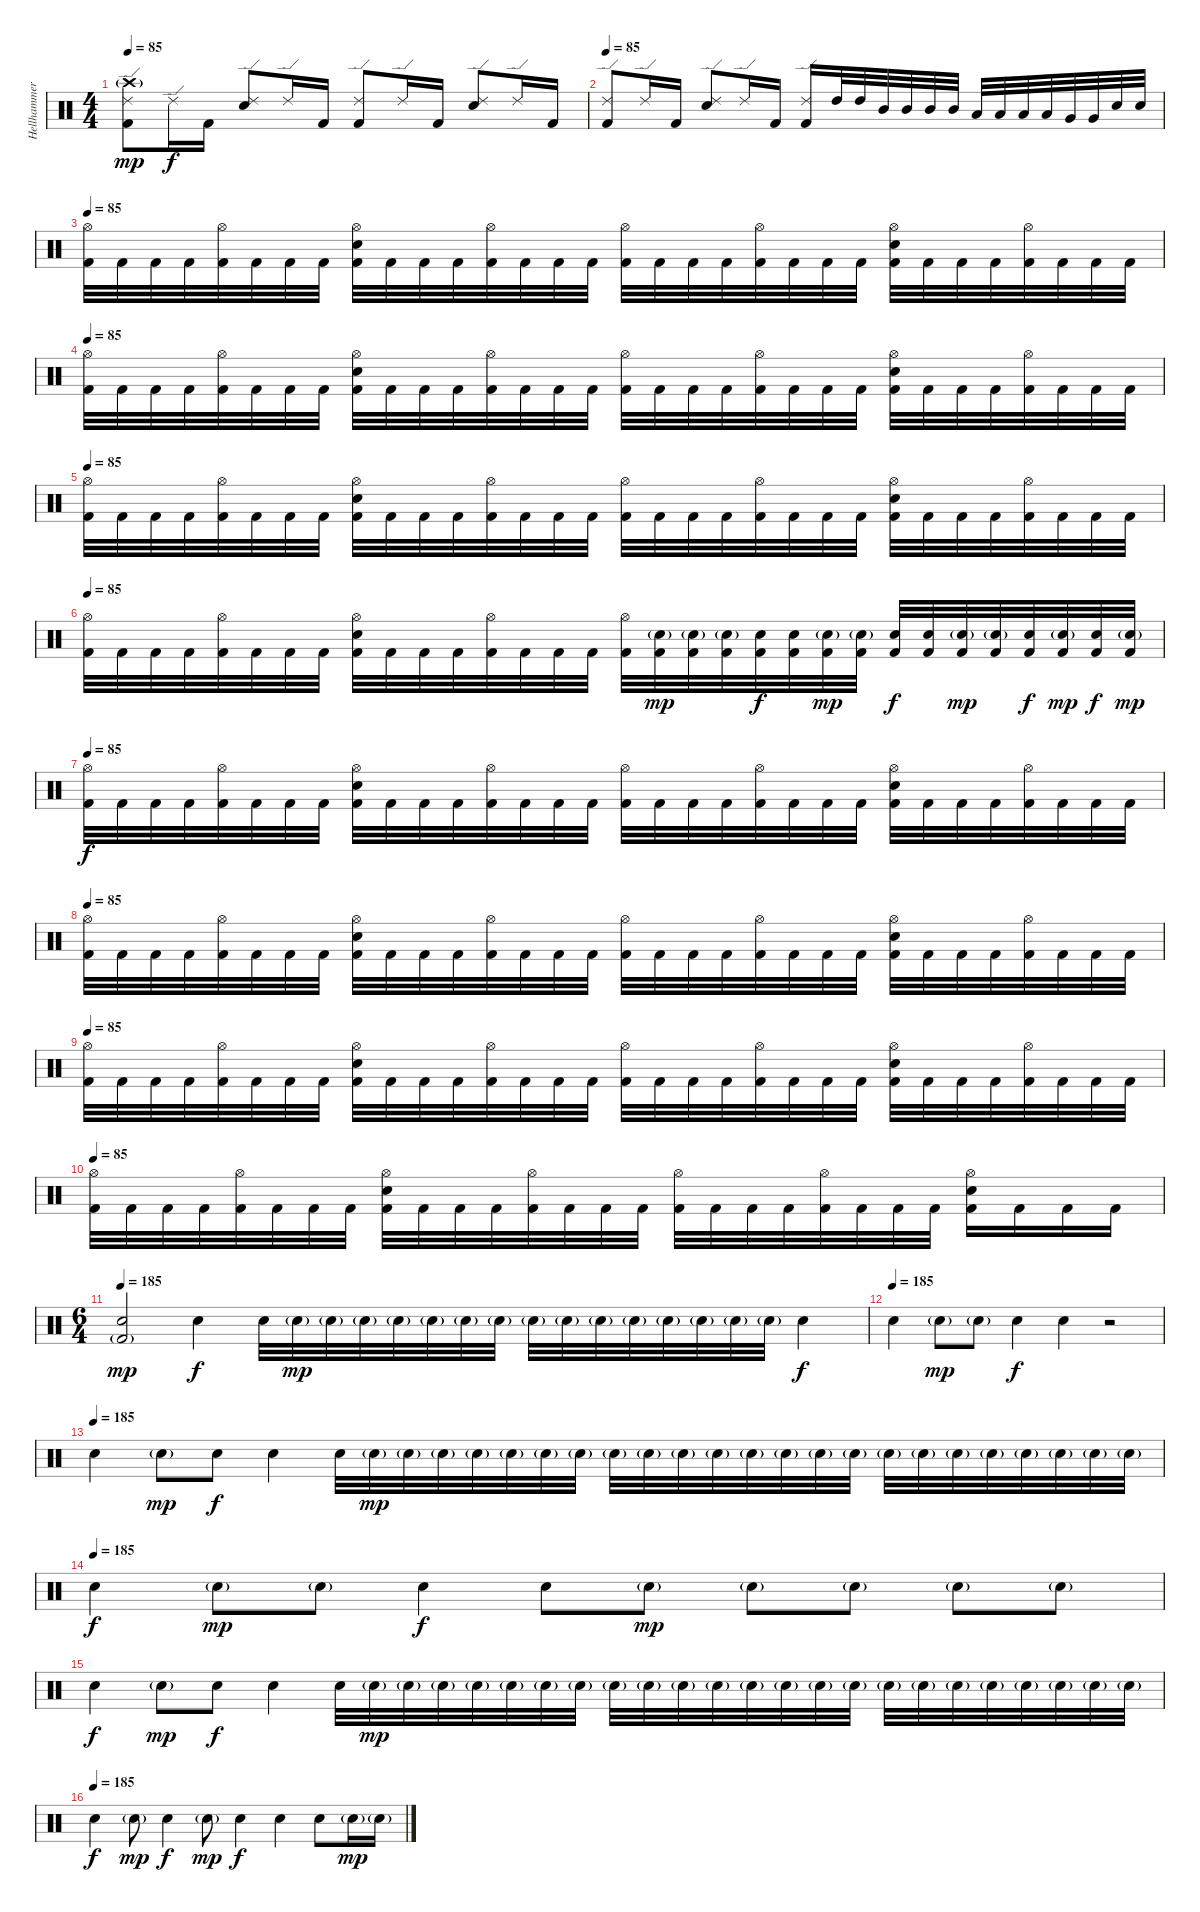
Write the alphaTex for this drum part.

\track ("Hellhammer" "Hellhammer") {instrument percussion}
\staff {score}
\articulation defaults
\ts (4 4)
\tempo 85
\clef neutral
\ks c
("Kick (hit) 2" "Ride (edge) 2" "Crash high (hit)"{g}).8{dy mp} "Ride (edge) 2".16{dy f} "Kick (hit) 2".16 ("Electric Snare (hit)" "Ride (edge) 2").8 "Ride (edge) 2".16 "Kick (hit) 2".16 ("Kick (hit) 2" "Ride (edge) 2").8 "Ride (edge) 2".16 "Kick (hit) 2".16 ("Electric Snare (hit)" "Ride (edge) 2").8 "Ride (edge) 2".16 "Kick (hit) 2".16 |
\tempo 85
("Kick (hit) 2" "Ride (edge) 2").8 "Ride (edge) 2".16 "Kick (hit) 2".16 ("Electric Snare (hit)" "Ride (edge) 2").8 "Ride (edge) 2".16 "Kick (hit) 2".16 ("Kick (hit) 2" "Ride (edge) 2").16{volume 13} "High Tom (hit)".32 "High Tom (hit)".32 "Mid Tom (hit)".32 "Mid Tom (hit)".32 "Mid Tom (hit)".32 "Mid Tom (hit)".32 "Low Tom (hit)".32 "Low Tom (hit)".32 "Low Tom (hit)".32 "Low Tom (hit)".32 "Very Low Tom (hit)".32 "Very Low Tom (hit)".32 "Electric Snare (hit)".32 "Electric Snare (hit)".32 |
\tempo 85
("Kick (hit) 2" "Hi-Hat (open)").32{volume 11} "Kick (hit) 2".32 "Kick (hit) 2".32 "Kick (hit) 2".32 ("Kick (hit) 2" "Hi-Hat (open)").32 "Kick (hit) 2".32 "Kick (hit) 2".32 "Kick (hit) 2".32 ("Kick (hit) 2" "Electric Snare (hit)" "Hi-Hat (open)").32 "Kick (hit) 2".32 "Kick (hit) 2".32 "Kick (hit) 2".32 ("Kick (hit) 2" "Hi-Hat (open)").32 "Kick (hit) 2".32 "Kick (hit) 2".32 "Kick (hit) 2".32 ("Kick (hit) 2" "Hi-Hat (open)").32 "Kick (hit) 2".32 "Kick (hit) 2".32 "Kick (hit) 2".32 ("Kick (hit) 2" "Hi-Hat (open)").32 "Kick (hit) 2".32 "Kick (hit) 2".32 "Kick (hit) 2".32 ("Kick (hit) 2" "Electric Snare (hit)" "Hi-Hat (open)").32 "Kick (hit) 2".32 "Kick (hit) 2".32 "Kick (hit) 2".32 ("Kick (hit) 2" "Hi-Hat (open)").32 "Kick (hit) 2".32 "Kick (hit) 2".32 "Kick (hit) 2".32 |
\tempo 85
("Kick (hit) 2" "Hi-Hat (open)").32{volume 11} "Kick (hit) 2".32 "Kick (hit) 2".32 "Kick (hit) 2".32 ("Kick (hit) 2" "Hi-Hat (open)").32 "Kick (hit) 2".32 "Kick (hit) 2".32 "Kick (hit) 2".32 ("Kick (hit) 2" "Electric Snare (hit)" "Hi-Hat (open)").32 "Kick (hit) 2".32 "Kick (hit) 2".32 "Kick (hit) 2".32 ("Kick (hit) 2" "Hi-Hat (open)").32 "Kick (hit) 2".32 "Kick (hit) 2".32 "Kick (hit) 2".32 ("Kick (hit) 2" "Hi-Hat (open)").32 "Kick (hit) 2".32 "Kick (hit) 2".32 "Kick (hit) 2".32 ("Kick (hit) 2" "Hi-Hat (open)").32 "Kick (hit) 2".32 "Kick (hit) 2".32 "Kick (hit) 2".32 ("Kick (hit) 2" "Electric Snare (hit)" "Hi-Hat (open)").32 "Kick (hit) 2".32 "Kick (hit) 2".32 "Kick (hit) 2".32 ("Kick (hit) 2" "Hi-Hat (open)").32 "Kick (hit) 2".32 "Kick (hit) 2".32 "Kick (hit) 2".32 |
\tempo 85
("Kick (hit) 2" "Hi-Hat (open)").32{volume 11} "Kick (hit) 2".32 "Kick (hit) 2".32 "Kick (hit) 2".32 ("Kick (hit) 2" "Hi-Hat (open)").32 "Kick (hit) 2".32 "Kick (hit) 2".32 "Kick (hit) 2".32 ("Kick (hit) 2" "Electric Snare (hit)" "Hi-Hat (open)").32 "Kick (hit) 2".32 "Kick (hit) 2".32 "Kick (hit) 2".32 ("Kick (hit) 2" "Hi-Hat (open)").32 "Kick (hit) 2".32 "Kick (hit) 2".32 "Kick (hit) 2".32 ("Kick (hit) 2" "Hi-Hat (open)").32 "Kick (hit) 2".32 "Kick (hit) 2".32 "Kick (hit) 2".32 ("Kick (hit) 2" "Hi-Hat (open)").32 "Kick (hit) 2".32 "Kick (hit) 2".32 "Kick (hit) 2".32 ("Kick (hit) 2" "Electric Snare (hit)" "Hi-Hat (open)").32 "Kick (hit) 2".32 "Kick (hit) 2".32 "Kick (hit) 2".32 ("Kick (hit) 2" "Hi-Hat (open)").32 "Kick (hit) 2".32 "Kick (hit) 2".32 "Kick (hit) 2".32 |
\tempo 85
("Kick (hit) 2" "Hi-Hat (open)").32{volume 11} "Kick (hit) 2".32 "Kick (hit) 2".32 "Kick (hit) 2".32 ("Kick (hit) 2" "Hi-Hat (open)").32 "Kick (hit) 2".32 "Kick (hit) 2".32 "Kick (hit) 2".32 ("Kick (hit) 2" "Electric Snare (hit)" "Hi-Hat (open)").32 "Kick (hit) 2".32 "Kick (hit) 2".32 "Kick (hit) 2".32 ("Kick (hit) 2" "Hi-Hat (open)").32 "Kick (hit) 2".32 "Kick (hit) 2".32 "Kick (hit) 2".32 ("Kick (hit) 2" "Hi-Hat (open)").32 ("Kick (hit) 2" "Electric Snare (hit)"{g}).32{dy mp} ("Kick (hit) 2" "Electric Snare (hit)"{g}).32 ("Kick (hit) 2" "Electric Snare (hit)"{g}).32 ("Kick (hit) 2" "Electric Snare (hit)").32{dy f} ("Kick (hit) 2" "Electric Snare (hit)").32 ("Kick (hit) 2" "Electric Snare (hit)"{g}).32{dy mp} ("Kick (hit) 2" "Electric Snare (hit)"{g}).32 ("Kick (hit) 2" "Electric Snare (hit)").32{dy f} ("Kick (hit) 2" "Electric Snare (hit)").32 ("Kick (hit) 2" "Electric Snare (hit)"{g}).32{dy mp} ("Kick (hit) 2" "Electric Snare (hit)"{g}).32 ("Kick (hit) 2" "Electric Snare (hit)").32{dy f} ("Kick (hit) 2" "Electric Snare (hit)"{g}).32{dy mp} ("Kick (hit) 2" "Electric Snare (hit)").32{dy f} ("Kick (hit) 2" "Electric Snare (hit)"{g}).32{dy mp} |
\tempo 85
("Kick (hit) 2" "Hi-Hat (open)").32{dy f volume 11} "Kick (hit) 2".32 "Kick (hit) 2".32 "Kick (hit) 2".32 ("Kick (hit) 2" "Hi-Hat (open)").32 "Kick (hit) 2".32 "Kick (hit) 2".32 "Kick (hit) 2".32 ("Kick (hit) 2" "Electric Snare (hit)" "Hi-Hat (open)").32 "Kick (hit) 2".32 "Kick (hit) 2".32 "Kick (hit) 2".32 ("Kick (hit) 2" "Hi-Hat (open)").32 "Kick (hit) 2".32 "Kick (hit) 2".32 "Kick (hit) 2".32 ("Kick (hit) 2" "Hi-Hat (open)").32 "Kick (hit) 2".32 "Kick (hit) 2".32 "Kick (hit) 2".32 ("Kick (hit) 2" "Hi-Hat (open)").32 "Kick (hit) 2".32 "Kick (hit) 2".32 "Kick (hit) 2".32 ("Kick (hit) 2" "Electric Snare (hit)" "Hi-Hat (open)").32 "Kick (hit) 2".32 "Kick (hit) 2".32 "Kick (hit) 2".32 ("Kick (hit) 2" "Hi-Hat (open)").32 "Kick (hit) 2".32 "Kick (hit) 2".32 "Kick (hit) 2".32 |
\tempo 85
("Kick (hit) 2" "Hi-Hat (open)").32{volume 11} "Kick (hit) 2".32 "Kick (hit) 2".32 "Kick (hit) 2".32 ("Kick (hit) 2" "Hi-Hat (open)").32 "Kick (hit) 2".32 "Kick (hit) 2".32 "Kick (hit) 2".32 ("Kick (hit) 2" "Electric Snare (hit)" "Hi-Hat (open)").32 "Kick (hit) 2".32 "Kick (hit) 2".32 "Kick (hit) 2".32 ("Kick (hit) 2" "Hi-Hat (open)").32 "Kick (hit) 2".32 "Kick (hit) 2".32 "Kick (hit) 2".32 ("Kick (hit) 2" "Hi-Hat (open)").32 "Kick (hit) 2".32 "Kick (hit) 2".32 "Kick (hit) 2".32 ("Kick (hit) 2" "Hi-Hat (open)").32 "Kick (hit) 2".32 "Kick (hit) 2".32 "Kick (hit) 2".32 ("Kick (hit) 2" "Electric Snare (hit)" "Hi-Hat (open)").32 "Kick (hit) 2".32 "Kick (hit) 2".32 "Kick (hit) 2".32 ("Kick (hit) 2" "Hi-Hat (open)").32 "Kick (hit) 2".32 "Kick (hit) 2".32 "Kick (hit) 2".32 |
\tempo 85
("Kick (hit) 2" "Hi-Hat (open)").32{volume 11} "Kick (hit) 2".32 "Kick (hit) 2".32 "Kick (hit) 2".32 ("Kick (hit) 2" "Hi-Hat (open)").32 "Kick (hit) 2".32 "Kick (hit) 2".32 "Kick (hit) 2".32 ("Kick (hit) 2" "Electric Snare (hit)" "Hi-Hat (open)").32 "Kick (hit) 2".32 "Kick (hit) 2".32 "Kick (hit) 2".32 ("Kick (hit) 2" "Hi-Hat (open)").32 "Kick (hit) 2".32 "Kick (hit) 2".32 "Kick (hit) 2".32 ("Kick (hit) 2" "Hi-Hat (open)").32 "Kick (hit) 2".32 "Kick (hit) 2".32 "Kick (hit) 2".32 ("Kick (hit) 2" "Hi-Hat (open)").32 "Kick (hit) 2".32 "Kick (hit) 2".32 "Kick (hit) 2".32 ("Kick (hit) 2" "Electric Snare (hit)" "Hi-Hat (open)").32 "Kick (hit) 2".32 "Kick (hit) 2".32 "Kick (hit) 2".32 ("Kick (hit) 2" "Hi-Hat (open)").32 "Kick (hit) 2".32 "Kick (hit) 2".32 "Kick (hit) 2".32 |
\tempo 85
("Kick (hit) 2" "Hi-Hat (open)").32{volume 11} "Kick (hit) 2".32 "Kick (hit) 2".32 "Kick (hit) 2".32 ("Kick (hit) 2" "Hi-Hat (open)").32 "Kick (hit) 2".32 "Kick (hit) 2".32 "Kick (hit) 2".32 ("Kick (hit) 2" "Electric Snare (hit)" "Hi-Hat (open)").32 "Kick (hit) 2".32 "Kick (hit) 2".32 "Kick (hit) 2".32 ("Kick (hit) 2" "Hi-Hat (open)").32 "Kick (hit) 2".32 "Kick (hit) 2".32 "Kick (hit) 2".32 ("Kick (hit) 2" "Hi-Hat (open)").32 "Kick (hit) 2".32 "Kick (hit) 2".32 "Kick (hit) 2".32 ("Kick (hit) 2" "Hi-Hat (open)").32 "Kick (hit) 2".32 "Kick (hit) 2".32 "Kick (hit) 2".32 ("Kick (hit) 2" "Electric Snare (hit)" "Hi-Hat (open)").16 "Kick (hit) 2".16 "Kick (hit) 2".16 "Kick (hit) 2".16 |
\ts (6 4)
\tempo 185
("Kick (hit) 2"{g} "Electric Snare (hit)").2{dy mp volume 8} "Electric Snare (hit)".4{dy f} "Electric Snare (hit)".32 "Electric Snare (hit)"{g}.32{dy mp} "Electric Snare (hit)"{g}.32 "Electric Snare (hit)"{g}.32 "Electric Snare (hit)"{g}.32 "Electric Snare (hit)"{g}.32 "Electric Snare (hit)"{g}.32 "Electric Snare (hit)"{g}.32 "Electric Snare (hit)"{g}.32 "Electric Snare (hit)"{g}.32 "Electric Snare (hit)"{g}.32 "Electric Snare (hit)"{g}.32 "Electric Snare (hit)"{g}.32 "Electric Snare (hit)"{g}.32 "Electric Snare (hit)"{g}.32 "Electric Snare (hit)"{g}.32 "Snare (hit)"{x}.4{dy f} |
\tempo (185)
"Electric Snare (hit)".4 "Electric Snare (hit)"{g}.8{dy mp} "Electric Snare (hit)"{g}.8 "Electric Snare (hit)".4{dy f} "Electric Snare (hit)".4 r.2 |
\tempo (185)
"Electric Snare (hit)".4 "Electric Snare (hit)"{g}.8{dy mp} "Electric Snare (hit)".8{dy f} "Electric Snare (hit)".4 "Electric Snare (hit)".32 "Electric Snare (hit)"{g}.32{dy mp} "Electric Snare (hit)"{g}.32 "Electric Snare (hit)"{g}.32 "Electric Snare (hit)"{g}.32 "Electric Snare (hit)"{g}.32 "Electric Snare (hit)"{g}.32 "Electric Snare (hit)"{g}.32 "Electric Snare (hit)"{g}.32 "Electric Snare (hit)"{g}.32 "Electric Snare (hit)"{g}.32 "Electric Snare (hit)"{g}.32 "Electric Snare (hit)"{g}.32 "Electric Snare (hit)"{g}.32 "Electric Snare (hit)"{g}.32 "Electric Snare (hit)"{g}.32 "Electric Snare (hit)"{g}.32 "Electric Snare (hit)"{g}.32 "Electric Snare (hit)"{g}.32 "Electric Snare (hit)"{g}.32 "Electric Snare (hit)"{g}.32 "Electric Snare (hit)"{g}.32 "Electric Snare (hit)"{g}.32 "Electric Snare (hit)"{g}.32 |
\tempo (185)
"Electric Snare (hit)".4{dy f} "Electric Snare (hit)"{g}.8{dy mp} "Electric Snare (hit)"{g}.8 "Electric Snare (hit)".4{dy f} "Electric Snare (hit)".8 "Electric Snare (hit)"{g}.8{dy mp} "Electric Snare (hit)"{g}.8 "Electric Snare (hit)"{g}.8 "Electric Snare (hit)"{g}.8 "Electric Snare (hit)"{g}.8 |
"Electric Snare (hit)".4{dy f} "Electric Snare (hit)"{g}.8{dy mp} "Electric Snare (hit)".8{dy f} "Electric Snare (hit)".4 "Electric Snare (hit)".32 "Electric Snare (hit)"{g}.32{dy mp} "Electric Snare (hit)"{g}.32 "Electric Snare (hit)"{g}.32 "Electric Snare (hit)"{g}.32 "Electric Snare (hit)"{g}.32 "Electric Snare (hit)"{g}.32 "Electric Snare (hit)"{g}.32 "Electric Snare (hit)"{g}.32 "Electric Snare (hit)"{g}.32 "Electric Snare (hit)"{g}.32 "Electric Snare (hit)"{g}.32 "Electric Snare (hit)"{g}.32 "Electric Snare (hit)"{g}.32 "Electric Snare (hit)"{g}.32 "Electric Snare (hit)"{g}.32 "Electric Snare (hit)"{g}.32 "Electric Snare (hit)"{g}.32 "Electric Snare (hit)"{g}.32 "Electric Snare (hit)"{g}.32 "Electric Snare (hit)"{g}.32 "Electric Snare (hit)"{g}.32 "Electric Snare (hit)"{g}.32 "Electric Snare (hit)"{g}.32 |
\tempo (185)
"Electric Snare (hit)".4{dy f} "Electric Snare (hit)"{g}.8{dy mp} "Electric Snare (hit)".4{dy f} "Electric Snare (hit)"{g}.8{dy mp} "Electric Snare (hit)".4{dy f} "Electric Snare (hit)".4 "Electric Snare (hit)".8 "Electric Snare (hit)"{g}.16{dy mp} "Electric Snare (hit)"{g}.16
